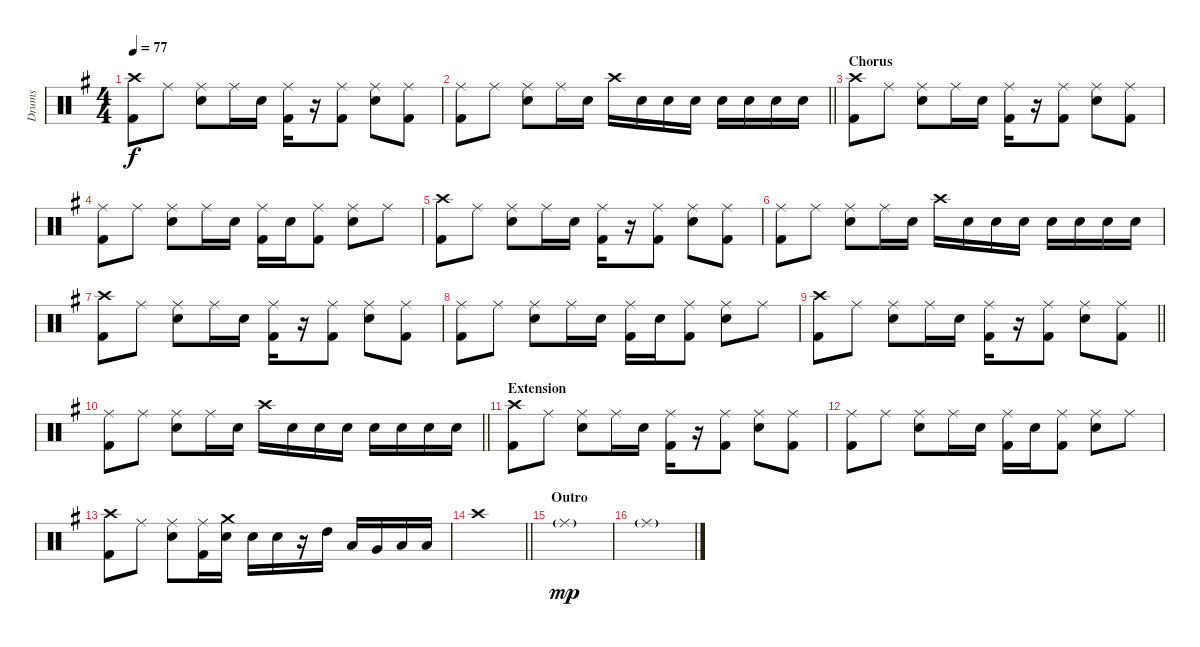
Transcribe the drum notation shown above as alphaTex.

\track ("Drums" "Drums") {instrument percussion}
\staff {score}
\articulation defaults
\ts (4 4)
\tempo 77
\clef neutral
\ks eminor
("Crash high (hit)" "Kick (hit) 2").8{dy f} "Ride (middle)".8 ("Ride (middle)" "Electric Snare (hit)").8 "Ride (middle)".16 "Electric Snare (hit)".16 ("Ride (middle)" "Kick (hit) 2").16 r.16 ("Ride (middle)" "Kick (hit) 2").8 ("Ride (middle)" "Electric Snare (hit)").8 ("Ride (middle)" "Kick (hit) 2").8 |
\barLineRight lightlight
("Ride (middle)" "Kick (hit) 2").8 "Ride (middle)".8 ("Ride (middle)" "Electric Snare (hit)").8 "Ride (middle)".16 "Electric Snare (hit)".16 "Crash high (hit)".16 "Electric Snare (hit)".16 "Electric Snare (hit)".16 "Electric Snare (hit)".16 "Electric Snare (hit)".16 "Electric Snare (hit)".16 "Electric Snare (hit)".16 "Electric Snare (hit)".16 |
\section ("" "Chorus")
("Crash high (hit)" "Kick (hit) 2").8 "Ride (middle)".8 ("Ride (middle)" "Electric Snare (hit)").8 "Ride (middle)".16 "Electric Snare (hit)".16 ("Ride (middle)" "Kick (hit) 2").16 r.16 ("Ride (middle)" "Kick (hit) 2").8 ("Ride (middle)" "Electric Snare (hit)").8 ("Ride (middle)" "Kick (hit) 2").8 |
("Ride (middle)" "Kick (hit) 2").8 "Ride (middle)".8 ("Ride (middle)" "Electric Snare (hit)").8 "Ride (middle)".16 "Electric Snare (hit)".16 ("Ride (middle)" "Kick (hit) 2").16 "Electric Snare (hit)".16 ("Ride (middle)" "Kick (hit) 2").8 ("Ride (middle)" "Electric Snare (hit)").8 "Ride (middle)".8 |
("Crash high (hit)" "Kick (hit) 2").8 "Ride (middle)".8 ("Ride (middle)" "Electric Snare (hit)").8 "Ride (middle)".16 "Electric Snare (hit)".16 ("Ride (middle)" "Kick (hit) 2").16 r.16 ("Ride (middle)" "Kick (hit) 2").8 ("Ride (middle)" "Electric Snare (hit)").8 ("Ride (middle)" "Kick (hit) 2").8 |
("Ride (middle)" "Kick (hit) 2").8 "Ride (middle)".8 ("Ride (middle)" "Electric Snare (hit)").8 "Ride (middle)".16 "Electric Snare (hit)".16 "Crash high (hit)".16 "Electric Snare (hit)".16 "Electric Snare (hit)".16 "Electric Snare (hit)".16 "Electric Snare (hit)".16 "Electric Snare (hit)".16 "Electric Snare (hit)".16 "Electric Snare (hit)".16 |
("Crash high (hit)" "Kick (hit) 2").8 "Ride (middle)".8 ("Ride (middle)" "Electric Snare (hit)").8 "Ride (middle)".16 "Electric Snare (hit)".16 ("Ride (middle)" "Kick (hit) 2").16 r.16 ("Ride (middle)" "Kick (hit) 2").8 ("Ride (middle)" "Electric Snare (hit)").8 ("Ride (middle)" "Kick (hit) 2").8 |
("Ride (middle)" "Kick (hit) 2").8 "Ride (middle)".8 ("Ride (middle)" "Electric Snare (hit)").8 "Ride (middle)".16 "Electric Snare (hit)".16 ("Ride (middle)" "Kick (hit) 2").16 "Electric Snare (hit)".16 ("Ride (middle)" "Kick (hit) 2").8 ("Ride (middle)" "Electric Snare (hit)").8 "Ride (middle)".8 |
\barLineRight lightlight
("Crash high (hit)" "Kick (hit) 2").8 "Ride (middle)".8 ("Ride (middle)" "Electric Snare (hit)").8 "Ride (middle)".16 "Electric Snare (hit)".16 ("Ride (middle)" "Kick (hit) 2").16 r.16 ("Ride (middle)" "Kick (hit) 2").8 ("Ride (middle)" "Electric Snare (hit)").8 ("Ride (middle)" "Kick (hit) 2").8 |
\section ("" "")
\barLineRight lightlight
("Ride (middle)" "Kick (hit) 2").8 "Ride (middle)".8 ("Ride (middle)" "Electric Snare (hit)").8 "Ride (middle)".16 "Electric Snare (hit)".16 "Crash high (hit)".16 "Electric Snare (hit)".16 "Electric Snare (hit)".16 "Electric Snare (hit)".16 "Electric Snare (hit)".16 "Electric Snare (hit)".16 "Electric Snare (hit)".16 "Electric Snare (hit)".16 |
\section ("" "Extension")
("Crash high (hit)" "Kick (hit) 2").8 "Ride (middle)".8 ("Ride (middle)" "Electric Snare (hit)").8 "Ride (middle)".16 "Electric Snare (hit)".16 ("Ride (middle)" "Kick (hit) 2").16 r.16 ("Ride (middle)" "Kick (hit) 2").8 ("Ride (middle)" "Electric Snare (hit)").8 ("Ride (middle)" "Kick (hit) 2").8 |
("Ride (middle)" "Kick (hit) 2").8 "Ride (middle)".8 ("Ride (middle)" "Electric Snare (hit)").8 "Ride (middle)".16 "Electric Snare (hit)".16 ("Ride (middle)" "Kick (hit) 2").16 "Electric Snare (hit)".16 ("Ride (middle)" "Kick (hit) 2").8 ("Ride (middle)" "Electric Snare (hit)").8 "Ride (middle)".8 |
("Crash high (hit)" "Kick (hit) 2").8 "Ride (middle)".8 ("Ride (middle)" "Electric Snare (hit)").8 ("Ride (middle)" "Kick (hit) 2").16 ("Crash medium (hit)" "Electric Snare (hit)").16 "Electric Snare (hit)".16 "Electric Snare (hit)".16 r.16 "High Tom (hit)".16 "Low Tom (hit)".16 "Very Low Tom (hit)".16 "Low Floor Tom (hit)".16 "Low Floor Tom (hit)".16 |
\barLineRight lightlight "Crash high (hit)".1
|
\section ("" "Outro")
"Ride (middle)"{g}.1{dy mp} |
"Ride (middle)"{g}.1
